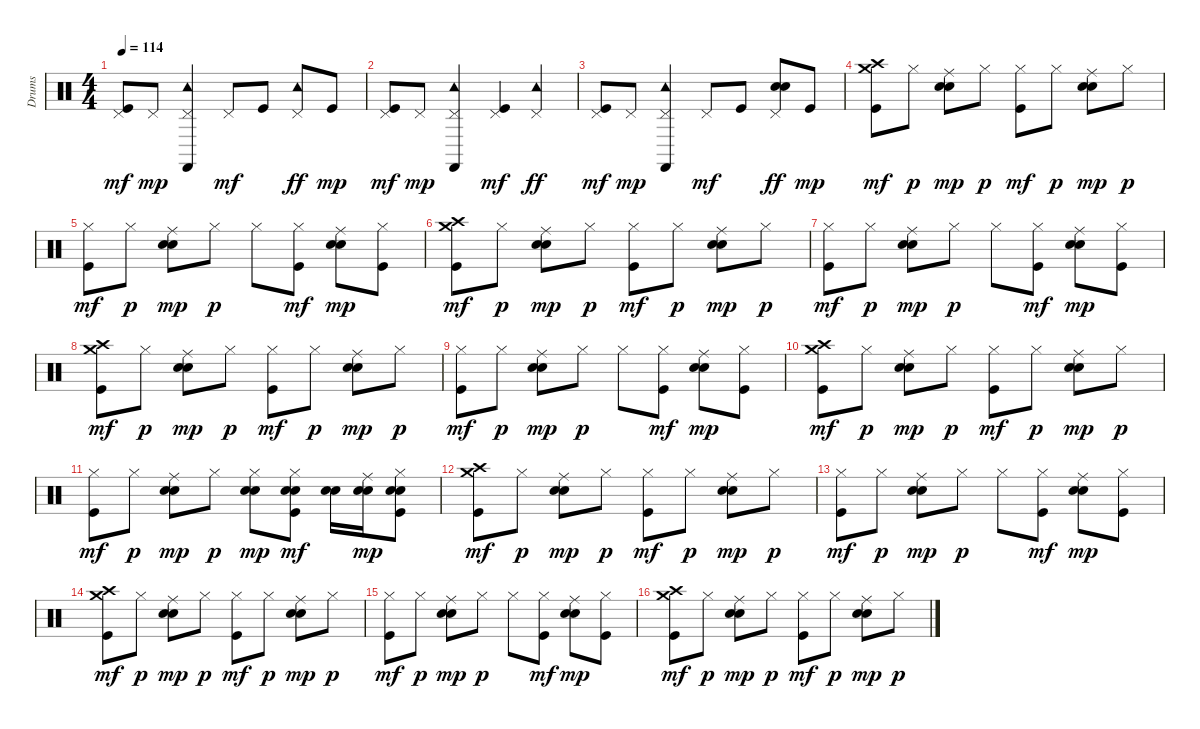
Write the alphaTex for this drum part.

\track ("Drums" "Drums") {instrument percussion}
\staff {score}
\articulation defaults
\ts (4 4)
\tempo 114
\clef neutral
\ks c
("Pedal Hi-Hat (hit)" "Kick (hit)").8{dy mf} "Pedal Hi-Hat (hit)".8{dy mp} ("Pedal Hi-Hat (hit)" "Tambourine (hit)" "Castanets (hit)").4 "Pedal Hi-Hat (hit)".8{dy mf} "Kick (hit)".8 ("Pedal Hi-Hat (hit)" "Tambourine (hit)").8{dy ff} "Kick (hit)".8{dy mp} |
("Pedal Hi-Hat (hit)" "Kick (hit)").8{dy mf} "Pedal Hi-Hat (hit)".8{dy mp} ("Pedal Hi-Hat (hit)" "Tambourine (hit)" "Castanets (hit)").4 ("Pedal Hi-Hat (hit)" "Kick (hit)").4{dy mf} ("Pedal Hi-Hat (hit)" "Tambourine (hit)").4{dy ff} |
("Pedal Hi-Hat (hit)" "Kick (hit)").8{dy mf} "Pedal Hi-Hat (hit)".8{dy mp} ("Pedal Hi-Hat (hit)" "Tambourine (hit)" "Castanets (hit)").4 "Pedal Hi-Hat (hit)".8{dy mf} "Kick (hit)".8 ("Pedal Hi-Hat (hit)" "Snare (hit) 2" "Electric Snare (hit)").8{dy ff} "Kick (hit)".8{dy mp} |
("Crash medium (hit)" "Crash high (hit)" "Kick (hit)").8{dy mf} "Hi-Hat (closed)".8{dy p} ("Ride (middle)" "Snare (hit) 2" "Electric Snare (hit)").8{dy mp} "Hi-Hat (closed)".8{dy p} ("Hi-Hat (closed)" "Kick (hit)").8{dy mf} "Hi-Hat (closed)".8{dy p} ("Ride (middle)" "Snare (hit) 2" "Electric Snare (hit)").8{dy mp} "Hi-Hat (closed)".8{dy p} |
("Hi-Hat (closed)" "Kick (hit)").8{dy mf} "Hi-Hat (closed)".8{dy p} ("Ride (middle)" "Snare (hit) 2" "Electric Snare (hit)").8{dy mp} "Hi-Hat (closed)".8{dy p} "Hi-Hat (closed)".8 ("Hi-Hat (closed)" "Kick (hit)").8{dy mf} ("Ride (middle)" "Snare (hit) 2" "Electric Snare (hit)").8{dy mp} ("Hi-Hat (closed)" "Kick (hit)").8 |
("Crash medium (hit)" "Crash high (hit)" "Kick (hit)").8{dy mf} "Hi-Hat (closed)".8{dy p} ("Ride (middle)" "Snare (hit) 2" "Electric Snare (hit)").8{dy mp} "Hi-Hat (closed)".8{dy p} ("Hi-Hat (closed)" "Kick (hit)").8{dy mf} "Hi-Hat (closed)".8{dy p} ("Ride (middle)" "Snare (hit) 2" "Electric Snare (hit)").8{dy mp} "Hi-Hat (closed)".8{dy p} |
("Hi-Hat (closed)" "Kick (hit)").8{dy mf} "Hi-Hat (closed)".8{dy p} ("Ride (middle)" "Snare (hit) 2" "Electric Snare (hit)").8{dy mp} "Hi-Hat (closed)".8{dy p} "Hi-Hat (closed)".8 ("Hi-Hat (closed)" "Kick (hit)").8{dy mf} ("Ride (middle)" "Snare (hit) 2" "Electric Snare (hit)").8{dy mp} ("Hi-Hat (closed)" "Kick (hit)").8 |
("Crash medium (hit)" "Crash high (hit)" "Kick (hit)").8{dy mf} "Hi-Hat (closed)".8{dy p} ("Ride (middle)" "Snare (hit) 2" "Electric Snare (hit)").8{dy mp} "Hi-Hat (closed)".8{dy p} ("Hi-Hat (closed)" "Kick (hit)").8{dy mf} "Hi-Hat (closed)".8{dy p} ("Ride (middle)" "Snare (hit) 2" "Electric Snare (hit)").8{dy mp} "Hi-Hat (closed)".8{dy p} |
("Hi-Hat (closed)" "Kick (hit)").8{dy mf} "Hi-Hat (closed)".8{dy p} ("Ride (middle)" "Snare (hit) 2" "Electric Snare (hit)").8{dy mp} "Hi-Hat (closed)".8{dy p} "Hi-Hat (closed)".8 ("Hi-Hat (closed)" "Kick (hit)").8{dy mf} ("Ride (middle)" "Snare (hit) 2" "Electric Snare (hit)").8{dy mp} ("Hi-Hat (closed)" "Kick (hit)").8 |
("Crash medium (hit)" "Crash high (hit)" "Kick (hit)").8{dy mf} "Hi-Hat (closed)".8{dy p} ("Ride (middle)" "Snare (hit) 2" "Electric Snare (hit)").8{dy mp} "Hi-Hat (closed)".8{dy p} ("Hi-Hat (closed)" "Kick (hit)").8{dy mf} "Hi-Hat (closed)".8{dy p} ("Ride (middle)" "Snare (hit) 2" "Electric Snare (hit)").8{dy mp} "Hi-Hat (closed)".8{dy p} |
("Hi-Hat (closed)" "Kick (hit)").8{dy mf} "Hi-Hat (closed)".8{dy p} ("Ride (middle)" "Snare (hit) 2" "Electric Snare (hit)").8{dy mp} "Hi-Hat (closed)".8{dy p} ("Hi-Hat (closed)" "Snare (hit) 2" "Electric Snare (hit)").8{dy mp} ("Hi-Hat (closed)" "Snare (hit) 2" "Electric Snare (hit)" "Kick (hit)").8{dy mf} ("Snare (hit) 2" "Electric Snare (hit)").16 ("Ride (middle)" "Snare (hit) 2" "Electric Snare (hit)").16{dy mp} ("Hi-Hat (closed)" "Snare (hit) 2" "Electric Snare (hit)" "Kick (hit)").8 |
("Crash medium (hit)" "Crash high (hit)" "Kick (hit)").8{dy mf} "Hi-Hat (closed)".8{dy p} ("Ride (middle)" "Snare (hit) 2" "Electric Snare (hit)").8{dy mp} "Hi-Hat (closed)".8{dy p} ("Hi-Hat (closed)" "Kick (hit)").8{dy mf} "Hi-Hat (closed)".8{dy p} ("Ride (middle)" "Snare (hit) 2" "Electric Snare (hit)").8{dy mp} "Hi-Hat (closed)".8{dy p} |
("Hi-Hat (closed)" "Kick (hit)").8{dy mf} "Hi-Hat (closed)".8{dy p} ("Ride (middle)" "Snare (hit) 2" "Electric Snare (hit)").8{dy mp} "Hi-Hat (closed)".8{dy p} "Hi-Hat (closed)".8 ("Hi-Hat (closed)" "Kick (hit)").8{dy mf} ("Ride (middle)" "Snare (hit) 2" "Electric Snare (hit)").8{dy mp} ("Hi-Hat (closed)" "Kick (hit)").8 |
("Crash medium (hit)" "Crash high (hit)" "Kick (hit)").8{dy mf} "Hi-Hat (closed)".8{dy p} ("Ride (middle)" "Snare (hit) 2" "Electric Snare (hit)").8{dy mp} "Hi-Hat (closed)".8{dy p} ("Hi-Hat (closed)" "Kick (hit)").8{dy mf} "Hi-Hat (closed)".8{dy p} ("Ride (middle)" "Snare (hit) 2" "Electric Snare (hit)").8{dy mp} "Hi-Hat (closed)".8{dy p} |
("Hi-Hat (closed)" "Kick (hit)").8{dy mf} "Hi-Hat (closed)".8{dy p} ("Ride (middle)" "Snare (hit) 2" "Electric Snare (hit)").8{dy mp} "Hi-Hat (closed)".8{dy p} "Hi-Hat (closed)".8 ("Hi-Hat (closed)" "Kick (hit)").8{dy mf} ("Ride (middle)" "Snare (hit) 2" "Electric Snare (hit)").8{dy mp} ("Hi-Hat (closed)" "Kick (hit)").8 |
("Crash medium (hit)" "Crash high (hit)" "Kick (hit)").8{dy mf} "Hi-Hat (closed)".8{dy p} ("Ride (middle)" "Snare (hit) 2" "Electric Snare (hit)").8{dy mp} "Hi-Hat (closed)".8{dy p} ("Hi-Hat (closed)" "Kick (hit)").8{dy mf} "Hi-Hat (closed)".8{dy p} ("Ride (middle)" "Snare (hit) 2" "Electric Snare (hit)").8{dy mp} "Hi-Hat (closed)".8{dy p}
